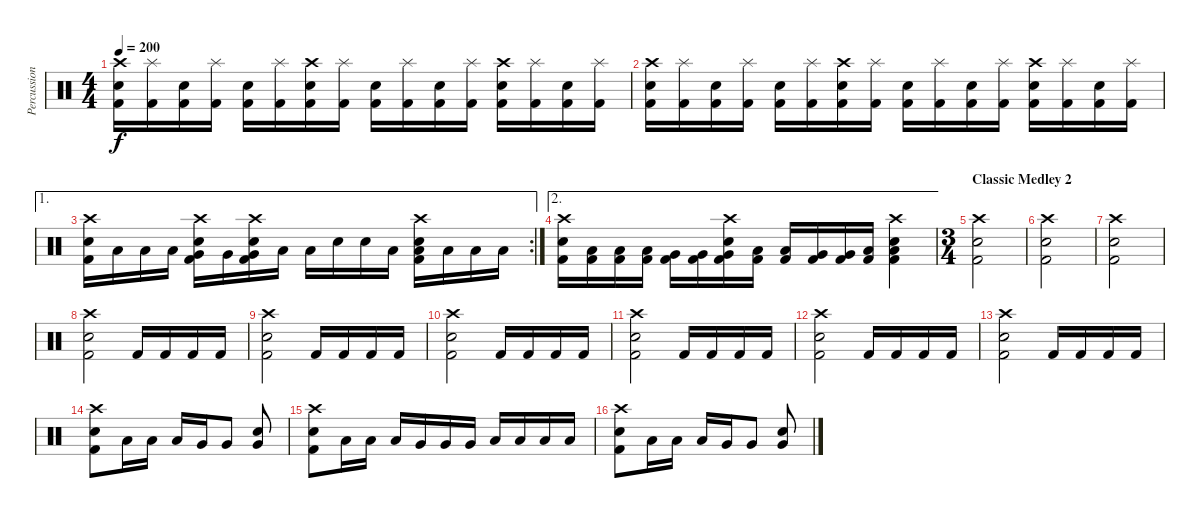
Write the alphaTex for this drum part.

\track ("Percussion" "Percussion") {instrument percussion}
\staff {score}
\articulation defaults
\ts (4 4)
\tempo 200
\clef neutral
\ks c
("Crash high (hit)" "Snare (hit) 2" "Kick (hit) 2").16{dy f} ("Splash (hit)" "Kick (hit) 2").16 ("Snare (hit) 2" "Kick (hit) 2").16 ("Splash (hit)" "Kick (hit) 2").16 ("Snare (hit) 2" "Kick (hit) 2").16 ("Splash (hit)" "Kick (hit) 2").16 ("Crash high (hit)" "Snare (hit) 2" "Kick (hit) 2").16 ("Splash (hit)" "Kick (hit) 2").16 ("Snare (hit) 2" "Kick (hit) 2").16 ("Splash (hit)" "Kick (hit) 2").16 ("Snare (hit) 2" "Kick (hit) 2").16 ("Splash (hit)" "Kick (hit) 2").16 ("Crash high (hit)" "Snare (hit) 2" "Kick (hit) 2").16 ("Splash (hit)" "Kick (hit) 2").16 ("Snare (hit) 2" "Kick (hit) 2").16 ("Splash (hit)" "Kick (hit) 2").16 |
("Crash high (hit)" "Snare (hit) 2" "Kick (hit) 2").16 ("Splash (hit)" "Kick (hit) 2").16 ("Snare (hit) 2" "Kick (hit) 2").16 ("Splash (hit)" "Kick (hit) 2").16 ("Snare (hit) 2" "Kick (hit) 2").16 ("Splash (hit)" "Kick (hit) 2").16 ("Crash high (hit)" "Snare (hit) 2" "Kick (hit) 2").16 ("Splash (hit)" "Kick (hit) 2").16 ("Snare (hit) 2" "Kick (hit) 2").16 ("Splash (hit)" "Kick (hit) 2").16 ("Snare (hit) 2" "Kick (hit) 2").16 ("Splash (hit)" "Kick (hit) 2").16 ("Crash high (hit)" "Snare (hit) 2" "Kick (hit) 2").16 ("Splash (hit)" "Kick (hit) 2").16 ("Snare (hit) 2" "Kick (hit) 2").16 ("Splash (hit)" "Kick (hit) 2").16 |
\ae 1
\rc 2
("Crash high (hit)" "Snare (hit) 2" "Kick (hit) 2").16 "Low Tom (hit)".16 "Low Tom (hit)".16 "Low Tom (hit)".16 ("Very Low Tom (hit)" "Crash high (hit)" "Snare (hit) 2" "Kick (hit) 2").16 "Very Low Tom (hit)".16 ("Very Low Tom (hit)" "Crash high (hit)" "Snare (hit) 2" "Kick (hit) 2").16 "Low Floor Tom (hit)".16 "Low Floor Tom (hit)".16 "Electric Snare (hit)".16 "Electric Snare (hit)".16 "Low Tom (hit)".16 ("Low Tom (hit)" "Crash high (hit)" "Snare (hit) 2" "Kick (hit) 2").16 "Low Floor Tom (hit)".16 "Low Floor Tom (hit)".16 "Low Floor Tom (hit)".16 |
\ae 2
("Crash high (hit)" "Snare (hit) 2" "Kick (hit) 2").16 ("Low Tom (hit)" "Kick (hit) 2").16 ("Low Tom (hit)" "Kick (hit) 2").16 ("Low Tom (hit)" "Kick (hit) 2").16 ("Very Low Tom (hit)" "Kick (hit) 2").16 ("Very Low Tom (hit)" "Kick (hit) 2").16 ("Very Low Tom (hit)" "Crash high (hit)" "Snare (hit) 2" "Kick (hit) 2").16 ("Low Floor Tom (hit)" "Kick (hit) 2").16 ("Low Floor Tom (hit)" "Kick (hit) 2").16 ("Very Low Tom (hit)" "Kick (hit) 2").16 ("Very Low Tom (hit)" "Kick (hit) 2").16 ("Low Tom (hit)" "Kick (hit) 2").16 ("Low Tom (hit)" "Crash high (hit)" "Snare (hit) 2" "Kick (hit) 2").4 |
\ts (3 4)
\section ("" "Classic Medley 2")
("Crash high (hit)" "Snare (hit) 2" "Kick (hit) 2").2 |
("Crash high (hit)" "Snare (hit) 2" "Kick (hit) 2").2 |
("Crash high (hit)" "Snare (hit) 2" "Kick (hit) 2").2 |
("Crash high (hit)" "Snare (hit) 2" "Kick (hit) 2").2 "Kick (hit) 2".16 "Kick (hit) 2".16 "Kick (hit) 2".16 "Kick (hit) 2".16 |
("Crash high (hit)" "Snare (hit) 2" "Kick (hit) 2").2 "Kick (hit) 2".16 "Kick (hit) 2".16 "Kick (hit) 2".16 "Kick (hit) 2".16 |
("Crash high (hit)" "Snare (hit) 2" "Kick (hit) 2").2 "Kick (hit) 2".16 "Kick (hit) 2".16 "Kick (hit) 2".16 "Kick (hit) 2".16 |
("Crash high (hit)" "Snare (hit) 2" "Kick (hit) 2").2 "Kick (hit) 2".16 "Kick (hit) 2".16 "Kick (hit) 2".16 "Kick (hit) 2".16 |
("Crash high (hit)" "Snare (hit) 2" "Kick (hit) 2").2 "Kick (hit) 2".16 "Kick (hit) 2".16 "Kick (hit) 2".16 "Kick (hit) 2".16 |
("Crash high (hit)" "Snare (hit) 2" "Kick (hit) 2").2 "Kick (hit) 2".16 "Kick (hit) 2".16 "Kick (hit) 2".16 "Kick (hit) 2".16 |
("Crash high (hit)" "Snare (hit) 2" "Kick (hit) 2").8 "Low Tom (hit)".16 "Low Tom (hit)".16 "Low Tom (hit)".16 "Very Low Tom (hit)".16 "Very Low Tom (hit)".8 ("Very Low Tom (hit)" "Snare (hit) 2").8 |
("Crash high (hit)" "Snare (hit) 2" "Kick (hit) 2").8 "Low Tom (hit)".16 "Low Tom (hit)".16 "Low Tom (hit)".16 "Very Low Tom (hit)".16 "Very Low Tom (hit)".16 "Very Low Tom (hit)".16 "Low Tom (hit)".16 "Low Tom (hit)".16 "Low Floor Tom (hit)".16 "Low Floor Tom (hit)".16 |
("Crash high (hit)" "Snare (hit) 2" "Kick (hit) 2").8 "Low Tom (hit)".16 "Low Tom (hit)".16 "Low Tom (hit)".16 "Very Low Tom (hit)".16 "Very Low Tom (hit)".8 ("Very Low Tom (hit)" "Snare (hit) 2").8
